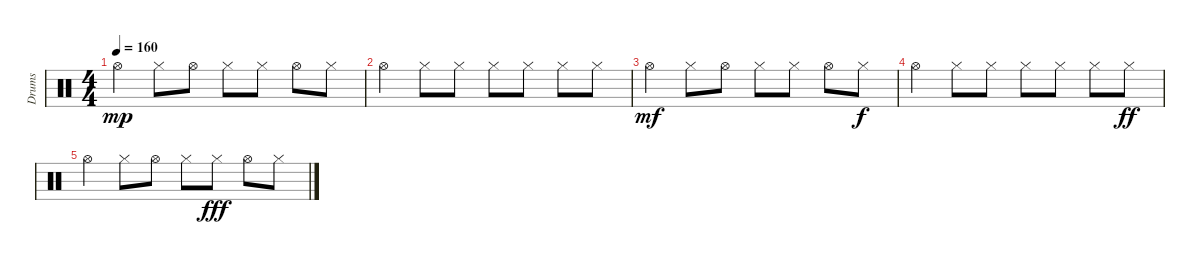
\track ("Drums" "Drums") {instrument percussion}
\staff {score}
\articulation defaults
\ts (4 4)
\tempo 160
\clef neutral
\ks c "Hi-Hat (open)".4{dy mp} "Hi-Hat (closed)".8 "Hi-Hat (open)".8 "Hi-Hat (closed)".8 "Hi-Hat (closed)".8 "Hi-Hat (open)".8 "Hi-Hat (closed)".8
|
"Hi-Hat (open)".4 "Hi-Hat (closed)".8 "Hi-Hat (closed)".8 "Hi-Hat (closed)".8 "Hi-Hat (closed)".8 "Hi-Hat (closed)".8 "Hi-Hat (closed)".8 |
"Hi-Hat (open)".4{dy mf} "Hi-Hat (closed)".8 "Hi-Hat (open)".8 "Hi-Hat (closed)".8 "Hi-Hat (closed)".8 "Hi-Hat (open)".8 "Hi-Hat (closed)".8{dy f} |
"Hi-Hat (open)".4 "Hi-Hat (closed)".8 "Hi-Hat (closed)".8 "Hi-Hat (closed)".8 "Hi-Hat (closed)".8 "Hi-Hat (closed)".8 "Hi-Hat (closed)".8{dy ff} |
"Hi-Hat (open)".4 "Hi-Hat (closed)".8 "Hi-Hat (open)".8 "Hi-Hat (closed)".8 "Hi-Hat (closed)".8{dy fff} "Hi-Hat (open)".8 "Hi-Hat (closed)".8
